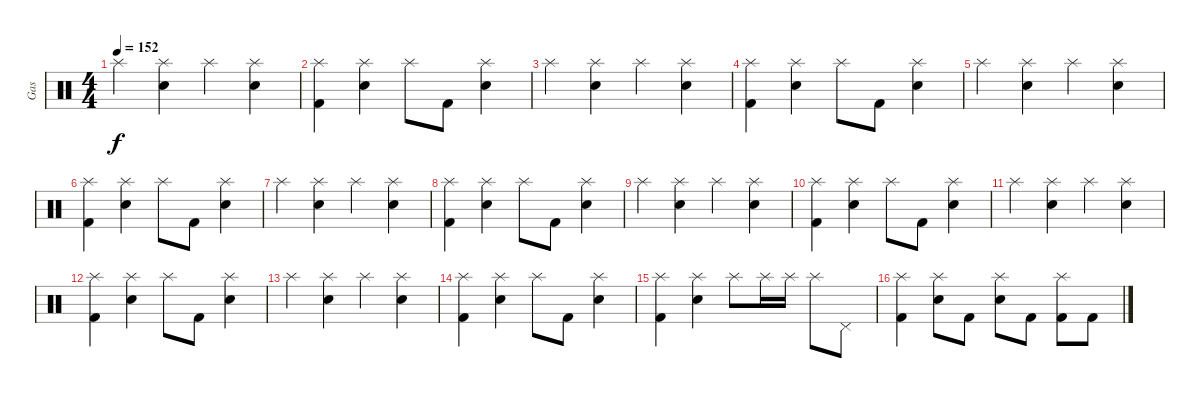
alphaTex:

\track ("Gas" "Gas") {instrument percussion}
\staff {score}
\articulation defaults
\ts (4 4)
\tempo 152
\clef neutral
\ks c "Splash (hit)".4{dy f}
("Splash (hit)" "Electric Snare (hit)").4 "Splash (hit)".4 ("Splash (hit)" "Electric Snare (hit)").4 |
("Splash (hit)" "Kick (hit) 2").4 ("Splash (hit)" "Electric Snare (hit)").4 "Splash (hit)".8 "Kick (hit) 2".8 ("Splash (hit)" "Electric Snare (hit)").4 |
"Splash (hit)".4 ("Splash (hit)" "Electric Snare (hit)").4 "Splash (hit)".4 ("Splash (hit)" "Electric Snare (hit)").4 |
("Splash (hit)" "Kick (hit) 2").4 ("Splash (hit)" "Electric Snare (hit)").4 "Splash (hit)".8 "Kick (hit) 2".8 ("Splash (hit)" "Electric Snare (hit)").4 |
"Splash (hit)".4 ("Splash (hit)" "Electric Snare (hit)").4 "Splash (hit)".4 ("Splash (hit)" "Electric Snare (hit)").4 |
("Splash (hit)" "Kick (hit) 2").4 ("Splash (hit)" "Electric Snare (hit)").4 "Splash (hit)".8 "Kick (hit) 2".8 ("Splash (hit)" "Electric Snare (hit)").4 |
"Splash (hit)".4 ("Splash (hit)" "Electric Snare (hit)").4 "Splash (hit)".4 ("Splash (hit)" "Electric Snare (hit)").4 |
("Splash (hit)" "Kick (hit) 2").4 ("Splash (hit)" "Electric Snare (hit)").4 "Splash (hit)".8 "Kick (hit) 2".8 ("Splash (hit)" "Electric Snare (hit)").4 |
"Splash (hit)".4 ("Splash (hit)" "Electric Snare (hit)").4 "Splash (hit)".4 ("Splash (hit)" "Electric Snare (hit)").4 |
("Splash (hit)" "Kick (hit) 2").4 ("Splash (hit)" "Electric Snare (hit)").4 "Splash (hit)".8 "Kick (hit) 2".8 ("Splash (hit)" "Electric Snare (hit)").4 |
"Splash (hit)".4 ("Splash (hit)" "Electric Snare (hit)").4 "Splash (hit)".4 ("Splash (hit)" "Electric Snare (hit)").4 |
("Splash (hit)" "Kick (hit) 2").4 ("Splash (hit)" "Electric Snare (hit)").4 "Splash (hit)".8 "Kick (hit) 2".8 ("Splash (hit)" "Electric Snare (hit)").4 |
"Splash (hit)".4 ("Splash (hit)" "Electric Snare (hit)").4 "Splash (hit)".4 ("Splash (hit)" "Electric Snare (hit)").4 |
("Splash (hit)" "Kick (hit) 2").4 ("Splash (hit)" "Electric Snare (hit)").4 "Splash (hit)".8 "Kick (hit) 2".8 ("Splash (hit)" "Electric Snare (hit)").4 |
("Splash (hit)" "Kick (hit) 2").4 ("Splash (hit)" "Electric Snare (hit)").4 "Splash (hit)".8 "Splash (hit)".16 "Splash (hit)".16 "Splash (hit)".8 "Pedal Hi-Hat (hit)".8 |
("Splash (hit)" "Kick (hit) 2").4 ("Splash (hit)" "Electric Snare (hit)").8 "Kick (hit) 2".8 ("Splash (hit)" "Electric Snare (hit)").8 "Kick (hit) 2".8 ("Splash (hit)" "Kick (hit) 2").8 "Kick (hit) 2".8
